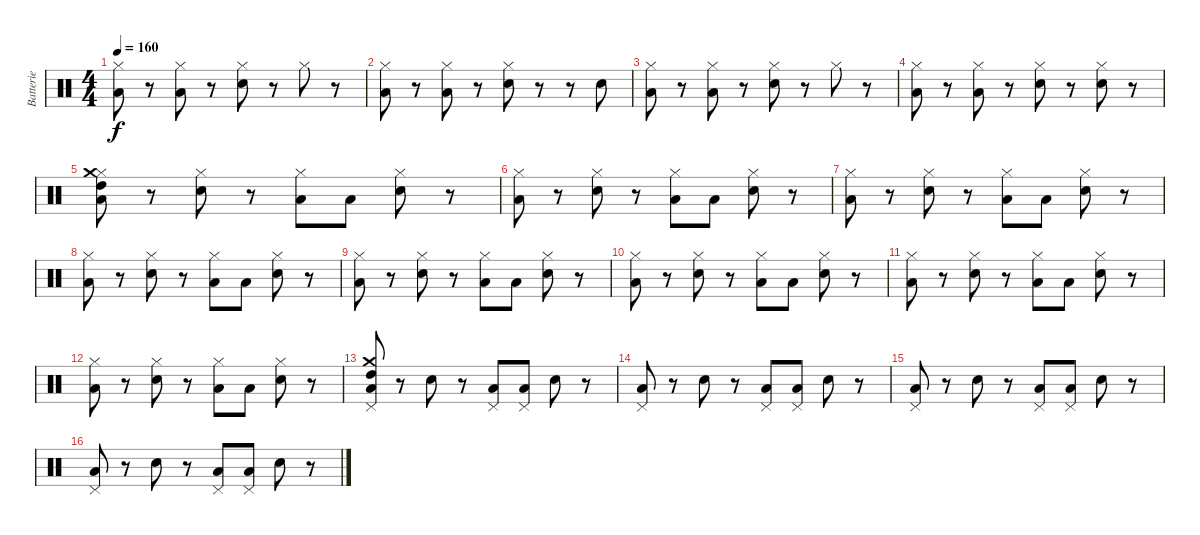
\track ("Batterie" "Batterie") {instrument percussion}
\staff {score}
\articulation defaults
\ts (4 4)
\tempo 160
\clef neutral
\ks c
("Hi-Hat (closed)" "Low Floor Tom (hit)").8{dy f} r.8 ("Hi-Hat (closed)" "Low Floor Tom (hit)").8 r.8 ("Hi-Hat (closed)" "Electric Snare (hit)").8 r.8 "Hi-Hat (closed)".8 r.8 |
("Hi-Hat (closed)" "Low Floor Tom (hit)").8 r.8 ("Hi-Hat (closed)" "Low Floor Tom (hit)").8 r.8 ("Hi-Hat (closed)" "Electric Snare (hit)").8 r.8 r.8 "Electric Snare (hit)".8 |
("Hi-Hat (closed)" "Low Floor Tom (hit)").8 r.8 ("Hi-Hat (closed)" "Low Floor Tom (hit)").8 r.8 ("Hi-Hat (closed)" "Electric Snare (hit)").8 r.8 "Hi-Hat (closed)".8 r.8 |
("Hi-Hat (closed)" "Low Floor Tom (hit)").8 r.8 ("Hi-Hat (closed)" "Low Floor Tom (hit)").8 r.8 ("Hi-Hat (closed)" "Electric Snare (hit)").8 r.8 ("Hi-Hat (closed)" "Electric Snare (hit)").8 r.8 |
("Hi-Hat (closed)" "Low Floor Tom (hit)" "Crash medium (hit)" "High Tom (hit)").8 r.8 ("Hi-Hat (closed)" "Electric Snare (hit)").8 r.8 ("Hi-Hat (closed)" "Low Floor Tom (hit)").8 "Low Floor Tom (hit)".8 ("Hi-Hat (closed)" "Electric Snare (hit)").8 r.8 |
("Hi-Hat (closed)" "Low Floor Tom (hit)").8 r.8 ("Hi-Hat (closed)" "Electric Snare (hit)").8 r.8 ("Hi-Hat (closed)" "Low Floor Tom (hit)").8 "Low Floor Tom (hit)".8 ("Hi-Hat (closed)" "Electric Snare (hit)").8 r.8 |
("Hi-Hat (closed)" "Low Floor Tom (hit)").8 r.8 ("Hi-Hat (closed)" "Electric Snare (hit)").8 r.8 ("Hi-Hat (closed)" "Low Floor Tom (hit)").8 "Low Floor Tom (hit)".8 ("Hi-Hat (closed)" "Electric Snare (hit)").8 r.8 |
("Hi-Hat (closed)" "Low Floor Tom (hit)").8 r.8 ("Hi-Hat (closed)" "Electric Snare (hit)").8 r.8 ("Hi-Hat (closed)" "Low Floor Tom (hit)").8 "Low Floor Tom (hit)".8 ("Hi-Hat (closed)" "Electric Snare (hit)").8 r.8 |
("Hi-Hat (closed)" "Low Floor Tom (hit)").8 r.8 ("Hi-Hat (closed)" "Electric Snare (hit)").8 r.8 ("Hi-Hat (closed)" "Low Floor Tom (hit)").8 "Low Floor Tom (hit)".8 ("Hi-Hat (closed)" "Electric Snare (hit)").8 r.8 |
("Hi-Hat (closed)" "Low Floor Tom (hit)").8 r.8 ("Hi-Hat (closed)" "Electric Snare (hit)").8 r.8 ("Hi-Hat (closed)" "Low Floor Tom (hit)").8 "Low Floor Tom (hit)".8 ("Hi-Hat (closed)" "Electric Snare (hit)").8 r.8 |
("Hi-Hat (closed)" "Low Floor Tom (hit)").8 r.8 ("Hi-Hat (closed)" "Electric Snare (hit)").8 r.8 ("Hi-Hat (closed)" "Low Floor Tom (hit)").8 "Low Floor Tom (hit)".8 ("Hi-Hat (closed)" "Electric Snare (hit)").8 r.8 |
("Hi-Hat (closed)" "Low Floor Tom (hit)").8 r.8 ("Hi-Hat (closed)" "Electric Snare (hit)").8 r.8 ("Hi-Hat (closed)" "Low Floor Tom (hit)").8 "Low Floor Tom (hit)".8 ("Hi-Hat (closed)" "Electric Snare (hit)").8 r.8 |
("Pedal Hi-Hat (hit)" "Low Floor Tom (hit)" "Crash medium (hit)" "High Tom (hit)").8 r.8 "Electric Snare (hit)".8 r.8 ("Pedal Hi-Hat (hit)" "Low Floor Tom (hit)").8 ("Pedal Hi-Hat (hit)" "Low Floor Tom (hit)").8 "Electric Snare (hit)".8 r.8 |
("Pedal Hi-Hat (hit)" "Low Floor Tom (hit)").8 r.8 "Electric Snare (hit)".8 r.8 ("Pedal Hi-Hat (hit)" "Low Floor Tom (hit)").8 ("Pedal Hi-Hat (hit)" "Low Floor Tom (hit)").8 "Electric Snare (hit)".8 r.8 |
("Pedal Hi-Hat (hit)" "Low Floor Tom (hit)").8 r.8 "Electric Snare (hit)".8 r.8 ("Pedal Hi-Hat (hit)" "Low Floor Tom (hit)").8 ("Pedal Hi-Hat (hit)" "Low Floor Tom (hit)").8 "Electric Snare (hit)".8 r.8 |
("Pedal Hi-Hat (hit)" "Low Floor Tom (hit)").8 r.8 "Electric Snare (hit)".8 r.8 ("Pedal Hi-Hat (hit)" "Low Floor Tom (hit)").8 ("Pedal Hi-Hat (hit)" "Low Floor Tom (hit)").8 "Electric Snare (hit)".8 r.8
